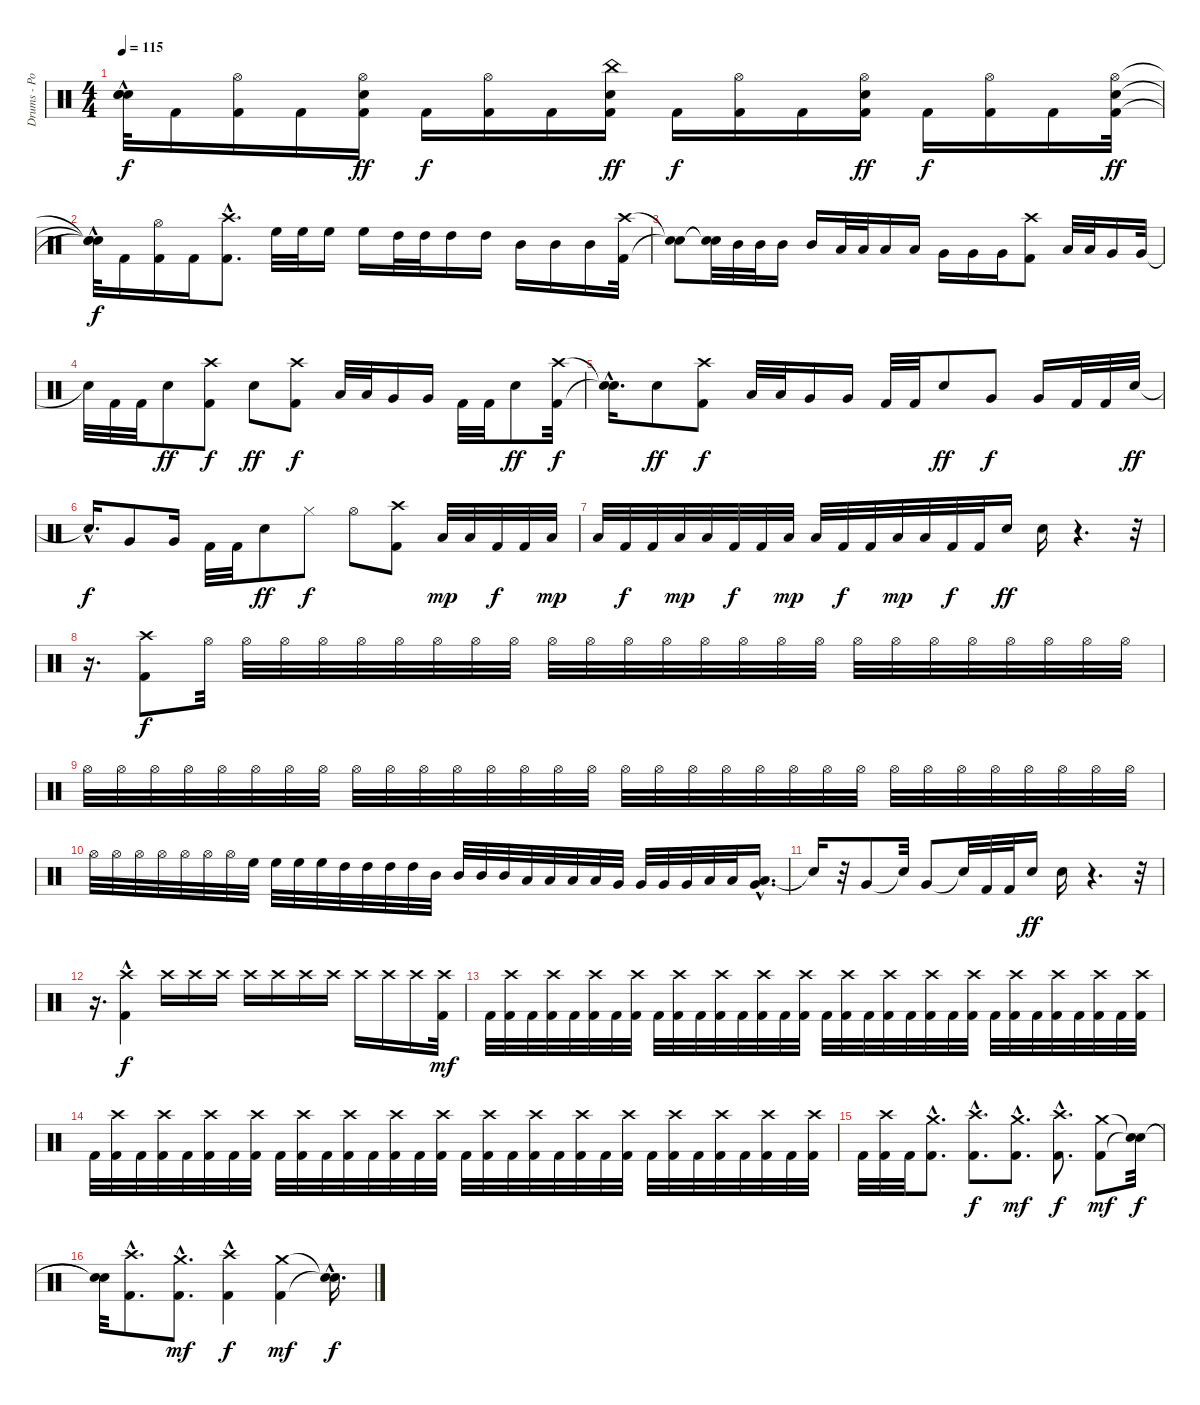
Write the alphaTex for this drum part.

\track ("Drums - Portnoy" "Drums - Po") {instrument percussion}
\staff {score}
\articulation defaults
\ts (4 4)
\tempo 115
\clef neutral
\ks c
("Snare (hit)"{t} "Snare (hit)"{hac t} "Snare (hit)"{hac t}).32{dy f} "Kick (hit) 2".16 ("Kick (hit) 2" "Hi-Hat (open)").16 "Kick (hit) 2".16 ("Kick (hit) 2" "Hi-Hat (open)" "Electric Snare (hit)").16{dy ff} "Kick (hit) 2".16{dy f} ("Kick (hit) 2" "Hi-Hat (open)").16 "Kick (hit) 2".16 ("Kick (hit) 2" "Electric Snare (hit)" "China (hit)").16{dy ff} "Kick (hit) 2".16{dy f} ("Kick (hit) 2" "Hi-Hat (open)").16 "Kick (hit) 2".16 ("Kick (hit) 2" "Hi-Hat (open)" "Electric Snare (hit)").16{dy ff} "Kick (hit) 2".16{dy f} ("Kick (hit) 2" "Hi-Hat (open)").16 "Kick (hit) 2".16 ("Kick (hit) 2" "Hi-Hat (open)" "Electric Snare (hit)").32{dy ff} |
("Snare (hit)"{t} "Snare (hit)"{hac t} "Snare (hit)"{hac t}).32{dy f} "Kick (hit) 2".16 ("Kick (hit) 2" "Hi-Hat (open)").16 "Kick (hit) 2".16 ("Crash high (hit)"{hac} "Kick (hit) 2").8{d} "High Floor Tom (hit)".32 "High Floor Tom (hit)".32 "High Floor Tom (hit)".16 "High Floor Tom (hit)".16 "High Tom (hit)".32 "High Tom (hit)".32 "High Tom (hit)".16 "High Tom (hit)".16 "Mid Tom (hit)".16 "Mid Tom (hit)".16 "Mid Tom (hit)".16 ("Crash high (hit)" "Kick (hit) 2").32 |
("Snare (hit)"{t} "Snare (hit)"{t}).8 ("Snare (hit)"{t} "Snare (hit)"{t}).32 "Mid Tom (hit)".32 "Mid Tom (hit)".32 "Mid Tom (hit)".16 "Mid Tom (hit)".16 "Low Tom (hit)".32 "Low Tom (hit)".32 "Low Tom (hit)".16 "Low Tom (hit)".16 "Very Low Tom (hit)".16 "Very Low Tom (hit)".16 "Very Low Tom (hit)".16 ("Crash high (hit)" "Kick (hit) 2").8 "Low Tom (hit)".32 "Low Tom (hit)".32 "Very Low Tom (hit)".16 "Very Low Tom (hit)".32 |
"Snare (hit)"{t}.32 "Kick (hit) 2".32 "Kick (hit) 2".32 "Electric Snare (hit)".8{dy ff} ("Kick (hit) 2" "Crash high (hit)").8{dy f} "Electric Snare (hit)".8{dy ff} ("Crash high (hit)" "Kick (hit) 2").8{dy f} "Low Tom (hit)".32 "Low Tom (hit)".32 "Very Low Tom (hit)".16 "Very Low Tom (hit)".16 "Kick (hit) 2".32 "Kick (hit) 2".32 "Electric Snare (hit)".8{dy ff} ("Kick (hit) 2" "Crash high (hit)").32{dy f} |
("Snare (hit)"{hac t} "Snare (hit)"{hac t}).16{d} "Electric Snare (hit)".8{dy ff} ("Crash high (hit)" "Kick (hit) 2").8{dy f} "Low Tom (hit)".32 "Low Tom (hit)".32 "Very Low Tom (hit)".16 "Very Low Tom (hit)".16 "Kick (hit) 2".32 "Kick (hit) 2".32 "Electric Snare (hit)".8{dy ff} "Very Low Tom (hit)".8{dy f} "Very Low Tom (hit)".16 "Kick (hit) 2".32 "Kick (hit) 2".32 "Electric Snare (hit)".32{dy ff} |
"Snare (hit)"{hac t}.16{d dy f} "Very Low Tom (hit)".8 "Very Low Tom (hit)".16 "Kick (hit) 2".32 "Kick (hit) 2".32 "Electric Snare (hit)".8{dy ff} "Hi-Hat (closed)".8{dy f} "Hi-Hat (open)".8 ("Crash high (hit)" "Kick (hit) 2").8 "Low Floor Tom (hit)".32{dy mp} "Low Floor Tom (hit)".32 "Kick (hit) 2".32{dy f} "Kick (hit) 2".32 "Low Floor Tom (hit)".32{dy mp} |
"Low Floor Tom (hit)".32 "Kick (hit) 2".32{dy f} "Kick (hit) 2".32 "Low Floor Tom (hit)".32{dy mp} "Low Floor Tom (hit)".32 "Kick (hit) 2".32{dy f} "Kick (hit) 2".32 "Low Floor Tom (hit)".32{dy mp} "Low Floor Tom (hit)".32 "Kick (hit) 2".32{dy f} "Kick (hit) 2".32 "Low Floor Tom (hit)".32{dy mp} "Low Floor Tom (hit)".32 "Kick (hit) 2".32{dy f} "Kick (hit) 2".32 "Electric Snare (hit)".16{dy ff} "Electric Snare (hit)".16 r.4{d} r.32 |
r.16{d} ("Kick (hit) 2" "Crash high (hit)").8{dy f} "Hi-Hat (open)".32 "Hi-Hat (open)".32 "Hi-Hat (open)".32 "Hi-Hat (open)".32 "Hi-Hat (open)".32 "Hi-Hat (open)".32 "Hi-Hat (open)".32 "Hi-Hat (open)".32 "Hi-Hat (open)".32 "Hi-Hat (open)".32 "Hi-Hat (open)".32 "Hi-Hat (open)".32 "Hi-Hat (open)".32 "Hi-Hat (open)".32 "Hi-Hat (open)".32 "Hi-Hat (open)".32 "Hi-Hat (open)".32 "Hi-Hat (open)".32 "Hi-Hat (open)".32 "Hi-Hat (open)".32 "Hi-Hat (open)".32 "Hi-Hat (open)".32 "Hi-Hat (open)".32 "Hi-Hat (open)".32 "Hi-Hat (open)".32 |
"Hi-Hat (open)".32 "Hi-Hat (open)".32 "Hi-Hat (open)".32 "Hi-Hat (open)".32 "Hi-Hat (open)".32 "Hi-Hat (open)".32 "Hi-Hat (open)".32 "Hi-Hat (open)".32 "Hi-Hat (open)".32 "Hi-Hat (open)".32 "Hi-Hat (open)".32 "Hi-Hat (open)".32 "Hi-Hat (open)".32 "Hi-Hat (open)".32 "Hi-Hat (open)".32 "Hi-Hat (open)".32 "Hi-Hat (open)".32 "Hi-Hat (open)".32 "Hi-Hat (open)".32 "Hi-Hat (open)".32 "Hi-Hat (open)".32 "Hi-Hat (open)".32 "Hi-Hat (open)".32 "Hi-Hat (open)".32 "Hi-Hat (open)".32 "Hi-Hat (open)".32 "Hi-Hat (open)".32 "Hi-Hat (open)".32 "Hi-Hat (open)".32 "Hi-Hat (open)".32 "Hi-Hat (open)".32 "Hi-Hat (open)".32 |
"Hi-Hat (open)".32 "Hi-Hat (open)".32 "Hi-Hat (open)".32 "Hi-Hat (open)".32 "Hi-Hat (open)".32 "Hi-Hat (open)".32 "Hi-Hat (open)".32 "High Floor Tom (hit)".32 "High Floor Tom (hit)".32 "High Floor Tom (hit)".32 "High Floor Tom (hit)".32 "High Tom (hit)".32 "High Tom (hit)".32 "High Tom (hit)".32 "High Tom (hit)".32 "Mid Tom (hit)".32 "Mid Tom (hit)".32 "Mid Tom (hit)".32 "Mid Tom (hit)".32 "Low Tom (hit)".32 "Low Tom (hit)".32 "Low Tom (hit)".32 "Low Tom (hit)".32 "Very Low Tom (hit)".32 "Very Low Tom (hit)".32 "Very Low Tom (hit)".32 "Very Low Tom (hit)".32 "Low Floor Tom (hit)".32 "Low Floor Tom (hit)".32 ("Low Floor Tom (hit)" "Very Low Tom (hit)"{hac}).16{d} |
"Snare (hit)"{t}.16 r.32 "Very Low Tom (hit)".8 "Snare (hit)"{t}.32 "Very Low Tom (hit)".8 "Snare (hit)"{t}.32 "Kick (hit) 2".32 "Kick (hit) 2".32 "Electric Snare (hit)".16{dy ff} "Electric Snare (hit)".16 r.4{d} r.32 |
r.16{d} ("Crash high (hit)" "Kick (hit) 2"{hac}).4{dy f} "Crash high (hit)".16 "Crash high (hit)".16 "Crash high (hit)".16 "Crash high (hit)".16 "Crash high (hit)".16 "Crash high (hit)".16 "Crash high (hit)".16 "Crash high (hit)".16 "Crash high (hit)".16 "Crash high (hit)".16 ("Crash high (hit)" "Kick (hit) 2").32{dy mf} |
"Kick (hit) 2".32 ("Crash high (hit)" "Kick (hit) 2").32 "Kick (hit) 2".32 ("Crash high (hit)" "Kick (hit) 2").32 "Kick (hit) 2".32 ("Crash high (hit)" "Kick (hit) 2").32 "Kick (hit) 2".32 ("Crash high (hit)" "Kick (hit) 2").32 "Kick (hit) 2".32 ("Crash high (hit)" "Kick (hit) 2").32 "Kick (hit) 2".32 ("Kick (hit) 2" "Crash high (hit)").32 "Kick (hit) 2".32 ("Kick (hit) 2" "Crash high (hit)").32 "Kick (hit) 2".32 ("Kick (hit) 2" "Crash high (hit)").32 "Kick (hit) 2".32 ("Kick (hit) 2" "Crash high (hit)").32 "Kick (hit) 2".32 ("Kick (hit) 2" "Crash high (hit)").32 "Kick (hit) 2".32 ("Crash high (hit)" "Kick (hit) 2").32 "Kick (hit) 2".32 ("Crash high (hit)" "Kick (hit) 2").32 "Kick (hit) 2".32 ("Crash high (hit)" "Kick (hit) 2").32 "Kick (hit) 2".32 ("Crash high (hit)" "Kick (hit) 2").32 "Kick (hit) 2".32 ("Crash high (hit)" "Kick (hit) 2").32 "Kick (hit) 2".32 ("Crash high (hit)" "Kick (hit) 2").32 |
"Kick (hit) 2".32 ("Crash high (hit)" "Kick (hit) 2").32 "Kick (hit) 2".32 ("Crash high (hit)" "Kick (hit) 2").32 "Kick (hit) 2".32 ("Crash high (hit)" "Kick (hit) 2").32 "Kick (hit) 2".32 ("Crash high (hit)" "Kick (hit) 2").32 "Kick (hit) 2".32 ("Crash high (hit)" "Kick (hit) 2").32 "Kick (hit) 2".32 ("Crash high (hit)" "Kick (hit) 2").32 "Kick (hit) 2".32 ("Crash high (hit)" "Kick (hit) 2").32 "Kick (hit) 2".32 ("Crash high (hit)" "Kick (hit) 2").32 "Kick (hit) 2".32 ("Crash high (hit)" "Kick (hit) 2").32 "Kick (hit) 2".32 ("Crash high (hit)" "Kick (hit) 2").32 "Kick (hit) 2".32 ("Crash high (hit)" "Kick (hit) 2").32 "Kick (hit) 2".32 ("Crash high (hit)" "Kick (hit) 2").32 "Kick (hit) 2".32 ("Crash high (hit)" "Kick (hit) 2").32 "Kick (hit) 2".32 ("Crash high (hit)" "Kick (hit) 2").32 "Kick (hit) 2".32 ("Crash high (hit)" "Kick (hit) 2").32 "Kick (hit) 2".32 ("Crash high (hit)" "Kick (hit) 2").32 |
"Kick (hit) 2".32 ("Crash high (hit)" "Kick (hit) 2").32 "Kick (hit) 2".32 ("Kick (hit) 2"{hac} "Crash medium (hit)"{hac}).8{d} ("Kick (hit) 2"{hac} "Crash high (hit)"{hac}).8{d dy f} ("Kick (hit) 2" "Crash medium (hit)"{hac}).8{d dy mf} ("Crash high (hit)"{hac} "Kick (hit) 2").8{d dy f} ("Kick (hit) 2" "Crash medium (hit)").8{dy mf} ("Snare (hit)"{t} "Snare (hit)"{t}).32{dy f} |
("Snare (hit)"{t} "Snare (hit)"{t}).32 ("Kick (hit) 2"{hac} "Crash high (hit)"{hac}).8{d} ("Kick (hit) 2" "Crash medium (hit)"{hac}).8{d dy mf} ("Crash high (hit)"{hac} "Kick (hit) 2").4{dy f} ("Kick (hit) 2" "Crash medium (hit)").4{dy mf} ("Snare (hit)"{hac t} "Snare (hit)"{hac t}).16{d dy f}
